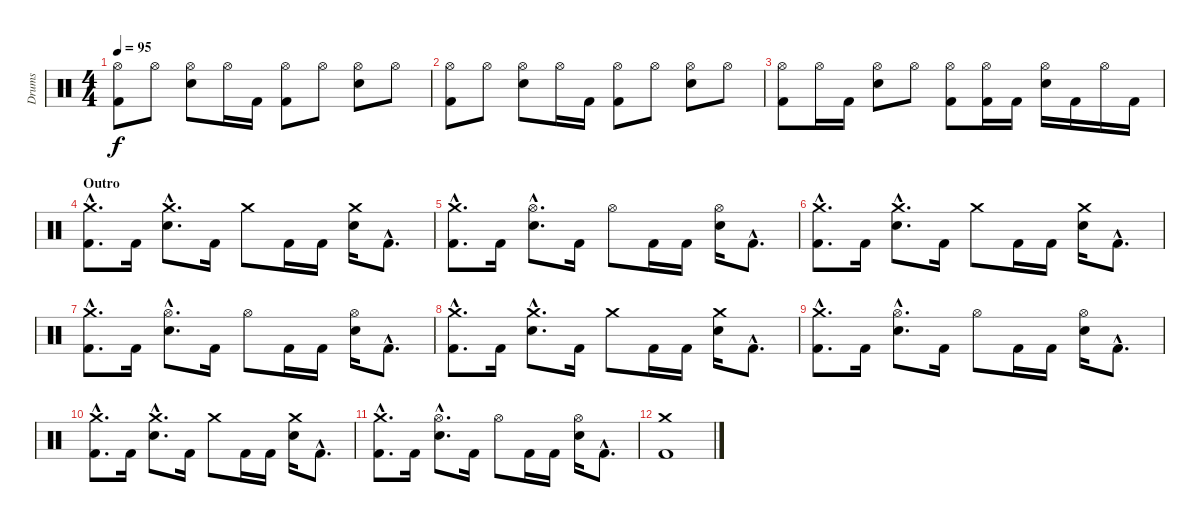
\track ("Drums" "Drums") {instrument percussion}
\staff {score}
\articulation defaults
\ts (4 4)
\tempo 95
\clef neutral
\ks c
("Hi-Hat (open)" "Kick (hit) 2").8{dy f} "Hi-Hat (open)".8 ("Hi-Hat (open)" "Electric Snare (hit)").8 "Hi-Hat (open)".16 "Kick (hit) 2".16 ("Hi-Hat (open)" "Kick (hit) 2").8 "Hi-Hat (open)".8 ("Hi-Hat (open)" "Electric Snare (hit)").8 "Hi-Hat (open)".8 |
("Hi-Hat (open)" "Kick (hit) 2").8 "Hi-Hat (open)".8 ("Hi-Hat (open)" "Electric Snare (hit)").8 "Hi-Hat (open)".16 "Kick (hit) 2".16 ("Hi-Hat (open)" "Kick (hit) 2").8 "Hi-Hat (open)".8 ("Hi-Hat (open)" "Electric Snare (hit)").8 "Hi-Hat (open)".8 |
("Hi-Hat (open)" "Kick (hit) 2").8 "Hi-Hat (open)".16 "Kick (hit) 2".16 ("Hi-Hat (open)" "Electric Snare (hit)").8 "Hi-Hat (open)".8 ("Hi-Hat (open)" "Kick (hit) 2").8 ("Hi-Hat (open)" "Kick (hit) 2").16 "Kick (hit) 2".16 ("Hi-Hat (open)" "Electric Snare (hit)").16 "Kick (hit) 2".16 "Hi-Hat (open)".16 "Kick (hit) 2".16 |
\section ("" "Outro")
("Crash medium (hit)"{hac} "Kick (hit) 2"{hac}).8{d} "Kick (hit) 2".16 ("Crash medium (hit)"{hac} "Electric Snare (hit)"{hac}).8{d} "Kick (hit) 2".16 "Crash medium (hit)".8 "Kick (hit) 2".16 "Kick (hit) 2".16 ("Crash medium (hit)" "Electric Snare (hit)").16 "Kick (hit) 2"{hac}.8{d} |
("Crash medium (hit)"{hac} "Kick (hit) 2"{hac}).8{d} "Kick (hit) 2".16 ("Hi-Hat (open)"{hac} "Electric Snare (hit)"{hac}).8{d} "Kick (hit) 2".16 "Hi-Hat (open)".8 "Kick (hit) 2".16 "Kick (hit) 2".16 ("Hi-Hat (open)" "Electric Snare (hit)").16 "Kick (hit) 2"{hac}.8{d} |
("Crash medium (hit)"{hac} "Kick (hit) 2"{hac}).8{d} "Kick (hit) 2".16 ("Crash medium (hit)"{hac} "Electric Snare (hit)"{hac}).8{d} "Kick (hit) 2".16 "Crash medium (hit)".8 "Kick (hit) 2".16 "Kick (hit) 2".16 ("Crash medium (hit)" "Electric Snare (hit)").16 "Kick (hit) 2"{hac}.8{d} |
("Crash medium (hit)"{hac} "Kick (hit) 2"{hac}).8{d} "Kick (hit) 2".16 ("Hi-Hat (open)"{hac} "Electric Snare (hit)"{hac}).8{d} "Kick (hit) 2".16 "Hi-Hat (open)".8 "Kick (hit) 2".16 "Kick (hit) 2".16 ("Hi-Hat (open)" "Electric Snare (hit)").16 "Kick (hit) 2"{hac}.8{d} |
("Crash medium (hit)"{hac} "Kick (hit) 2"{hac}).8{d} "Kick (hit) 2".16 ("Crash medium (hit)"{hac} "Electric Snare (hit)"{hac}).8{d} "Kick (hit) 2".16 "Crash medium (hit)".8 "Kick (hit) 2".16 "Kick (hit) 2".16 ("Crash medium (hit)" "Electric Snare (hit)").16 "Kick (hit) 2"{hac}.8{d} |
("Crash medium (hit)"{hac} "Kick (hit) 2"{hac}).8{d} "Kick (hit) 2".16 ("Hi-Hat (open)"{hac} "Electric Snare (hit)"{hac}).8{d} "Kick (hit) 2".16 "Hi-Hat (open)".8 "Kick (hit) 2".16 "Kick (hit) 2".16 ("Hi-Hat (open)" "Electric Snare (hit)").16 "Kick (hit) 2"{hac}.8{d} |
("Crash medium (hit)"{hac} "Kick (hit) 2"{hac}).8{d} "Kick (hit) 2".16 ("Crash medium (hit)"{hac} "Electric Snare (hit)"{hac}).8{d} "Kick (hit) 2".16 "Crash medium (hit)".8 "Kick (hit) 2".16 "Kick (hit) 2".16 ("Crash medium (hit)" "Electric Snare (hit)").16 "Kick (hit) 2"{hac}.8{d} |
("Crash medium (hit)"{hac} "Kick (hit) 2"{hac}).8{d} "Kick (hit) 2".16 ("Hi-Hat (open)"{hac} "Electric Snare (hit)"{hac}).8{d} "Kick (hit) 2".16 "Hi-Hat (open)".8 "Kick (hit) 2".16 "Kick (hit) 2".16 ("Hi-Hat (open)" "Electric Snare (hit)").16 "Kick (hit) 2"{hac}.8{d} |
("Crash medium (hit)" "Kick (hit) 2").1
